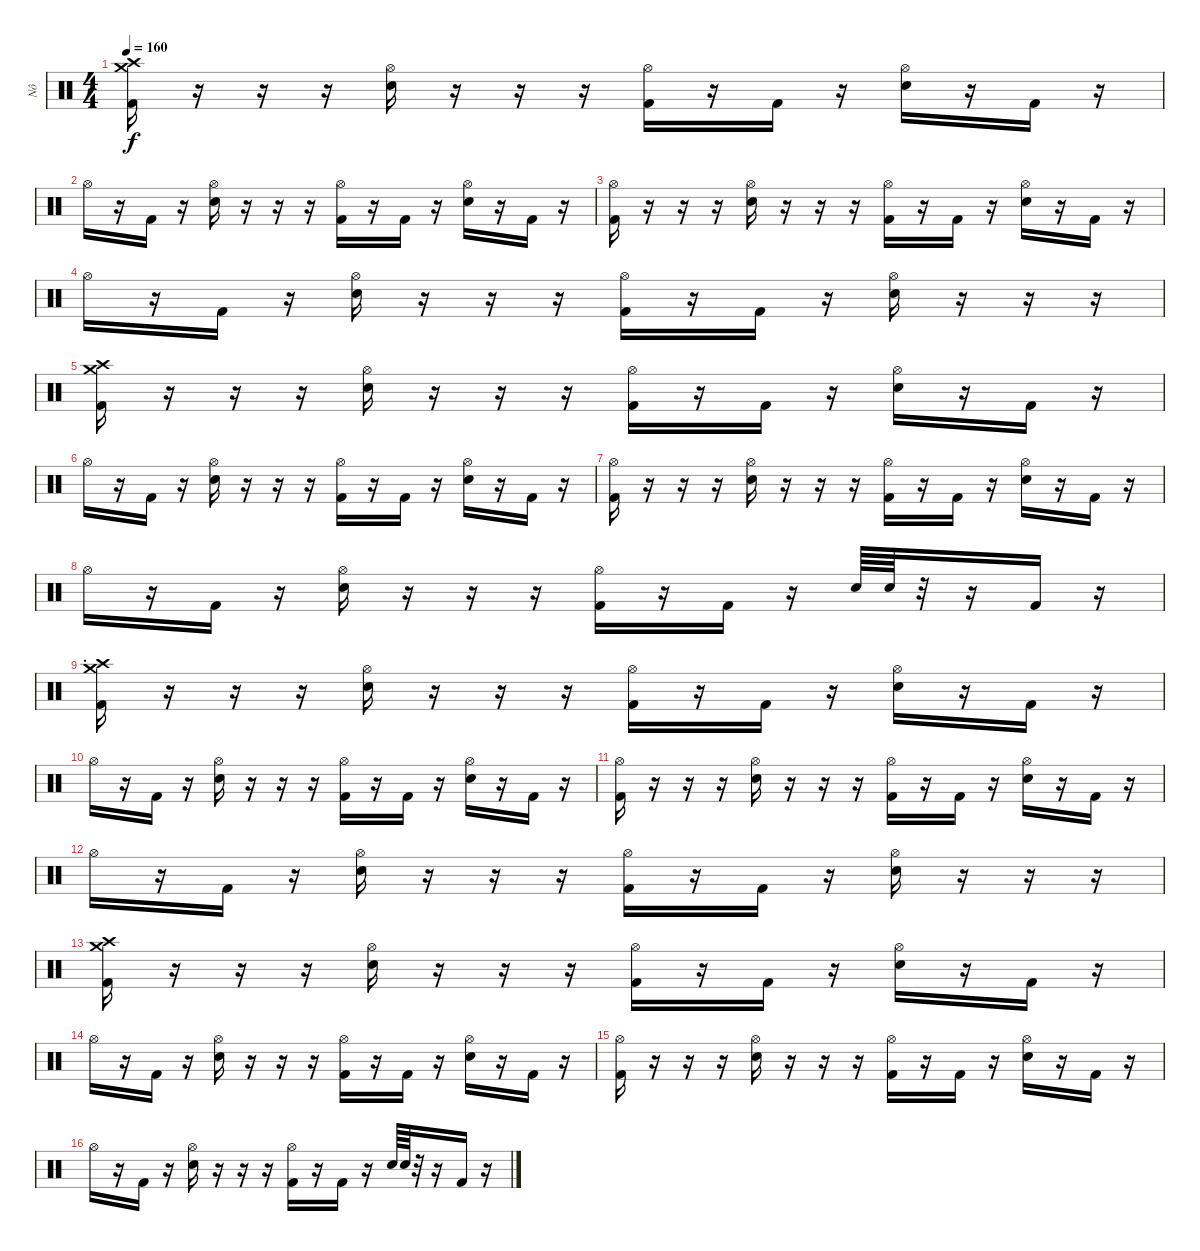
\track ("Nô" "Nô") {instrument percussion}
\staff {score}
\articulation defaults
\ts (4 4)
\tempo 160
\clef neutral
\ks c
("Crash high (hit)" "Crash medium (hit)" "Kick (hit) 2").16{dy f} r.16 r.16 r.16 ("Hi-Hat (open)" "Electric Snare (hit)").16 r.16 r.16 r.16 ("Hi-Hat (open)" "Kick (hit) 2").16 r.16 "Kick (hit) 2".16 r.16 ("Hi-Hat (open)" "Electric Snare (hit)").16 r.16 "Kick (hit) 2".16 r.16 |
"Hi-Hat (open)".16 r.16 "Kick (hit) 2".16 r.16 ("Hi-Hat (open)" "Electric Snare (hit)").16 r.16 r.16 r.16 ("Hi-Hat (open)" "Kick (hit) 2").16 r.16 "Kick (hit) 2".16 r.16 ("Hi-Hat (open)" "Electric Snare (hit)").16 r.16 "Kick (hit) 2".16 r.16 |
("Hi-Hat (open)" "Kick (hit) 2").16 r.16 r.16 r.16 ("Hi-Hat (open)" "Electric Snare (hit)").16 r.16 r.16 r.16 ("Hi-Hat (open)" "Kick (hit) 2").16 r.16 "Kick (hit) 2".16 r.16 ("Hi-Hat (open)" "Electric Snare (hit)").16 r.16 "Kick (hit) 2".16 r.16 |
"Hi-Hat (open)".16 r.16 "Kick (hit) 2".16 r.16 ("Hi-Hat (open)" "Electric Snare (hit)").16 r.16 r.16 r.16 ("Hi-Hat (open)" "Kick (hit) 2").16 r.16 "Kick (hit) 2".16 r.16 ("Hi-Hat (open)" "Electric Snare (hit)").16 r.16 r.16 r.16 |
("Crash high (hit)" "Crash medium (hit)" "Kick (hit) 2").16 r.16 r.16 r.16 ("Hi-Hat (open)" "Electric Snare (hit)").16 r.16 r.16 r.16 ("Hi-Hat (open)" "Kick (hit) 2").16 r.16 "Kick (hit) 2".16 r.16 ("Hi-Hat (open)" "Electric Snare (hit)").16 r.16 "Kick (hit) 2".16 r.16 |
"Hi-Hat (open)".16 r.16 "Kick (hit) 2".16 r.16 ("Hi-Hat (open)" "Electric Snare (hit)").16 r.16 r.16 r.16 ("Hi-Hat (open)" "Kick (hit) 2").16 r.16 "Kick (hit) 2".16 r.16 ("Hi-Hat (open)" "Electric Snare (hit)").16 r.16 "Kick (hit) 2".16 r.16 |
("Hi-Hat (open)" "Kick (hit) 2").16 r.16 r.16 r.16 ("Hi-Hat (open)" "Electric Snare (hit)").16 r.16 r.16 r.16 ("Hi-Hat (open)" "Kick (hit) 2").16 r.16 "Kick (hit) 2".16 r.16 ("Hi-Hat (open)" "Electric Snare (hit)").16 r.16 "Kick (hit) 2".16 r.16 |
"Hi-Hat (open)".16 r.16 "Kick (hit) 2".16 r.16 ("Hi-Hat (open)" "Electric Snare (hit)").16 r.16 r.16 r.16 ("Hi-Hat (open)" "Kick (hit) 2").16 r.16 "Kick (hit) 2".16 r.16 "Electric Snare (hit)".64 "Electric Snare (hit)".64 r.32 r.16 "Kick (hit) 2".16 r.16 |
\section ("" ".")
("Crash high (hit)" "Crash medium (hit)" "Kick (hit) 2").16 r.16 r.16 r.16 ("Hi-Hat (open)" "Electric Snare (hit)").16 r.16 r.16 r.16 ("Hi-Hat (open)" "Kick (hit) 2").16 r.16 "Kick (hit) 2".16 r.16 ("Hi-Hat (open)" "Electric Snare (hit)").16 r.16 "Kick (hit) 2".16 r.16 |
"Hi-Hat (open)".16 r.16 "Kick (hit) 2".16 r.16 ("Hi-Hat (open)" "Electric Snare (hit)").16 r.16 r.16 r.16 ("Hi-Hat (open)" "Kick (hit) 2").16 r.16 "Kick (hit) 2".16 r.16 ("Hi-Hat (open)" "Electric Snare (hit)").16 r.16 "Kick (hit) 2".16 r.16 |
("Hi-Hat (open)" "Kick (hit) 2").16 r.16 r.16 r.16 ("Hi-Hat (open)" "Electric Snare (hit)").16 r.16 r.16 r.16 ("Hi-Hat (open)" "Kick (hit) 2").16 r.16 "Kick (hit) 2".16 r.16 ("Hi-Hat (open)" "Electric Snare (hit)").16 r.16 "Kick (hit) 2".16 r.16 |
"Hi-Hat (open)".16 r.16 "Kick (hit) 2".16 r.16 ("Hi-Hat (open)" "Electric Snare (hit)").16 r.16 r.16 r.16 ("Hi-Hat (open)" "Kick (hit) 2").16 r.16 "Kick (hit) 2".16 r.16 ("Hi-Hat (open)" "Electric Snare (hit)").16 r.16 r.16 r.16 |
("Crash high (hit)" "Crash medium (hit)" "Kick (hit) 2").16 r.16 r.16 r.16 ("Hi-Hat (open)" "Electric Snare (hit)").16 r.16 r.16 r.16 ("Hi-Hat (open)" "Kick (hit) 2").16 r.16 "Kick (hit) 2".16 r.16 ("Hi-Hat (open)" "Electric Snare (hit)").16 r.16 "Kick (hit) 2".16 r.16 |
"Hi-Hat (open)".16 r.16 "Kick (hit) 2".16 r.16 ("Hi-Hat (open)" "Electric Snare (hit)").16 r.16 r.16 r.16 ("Hi-Hat (open)" "Kick (hit) 2").16 r.16 "Kick (hit) 2".16 r.16 ("Hi-Hat (open)" "Electric Snare (hit)").16 r.16 "Kick (hit) 2".16 r.16 |
("Hi-Hat (open)" "Kick (hit) 2").16 r.16 r.16 r.16 ("Hi-Hat (open)" "Electric Snare (hit)").16 r.16 r.16 r.16 ("Hi-Hat (open)" "Kick (hit) 2").16 r.16 "Kick (hit) 2".16 r.16 ("Hi-Hat (open)" "Electric Snare (hit)").16 r.16 "Kick (hit) 2".16 r.16 |
"Hi-Hat (open)".16 r.16 "Kick (hit) 2".16 r.16 ("Hi-Hat (open)" "Electric Snare (hit)").16 r.16 r.16 r.16 ("Hi-Hat (open)" "Kick (hit) 2").16 r.16 "Kick (hit) 2".16 r.16 "Electric Snare (hit)".64 "Electric Snare (hit)".64 r.32 r.16 "Kick (hit) 2".16 r.16
